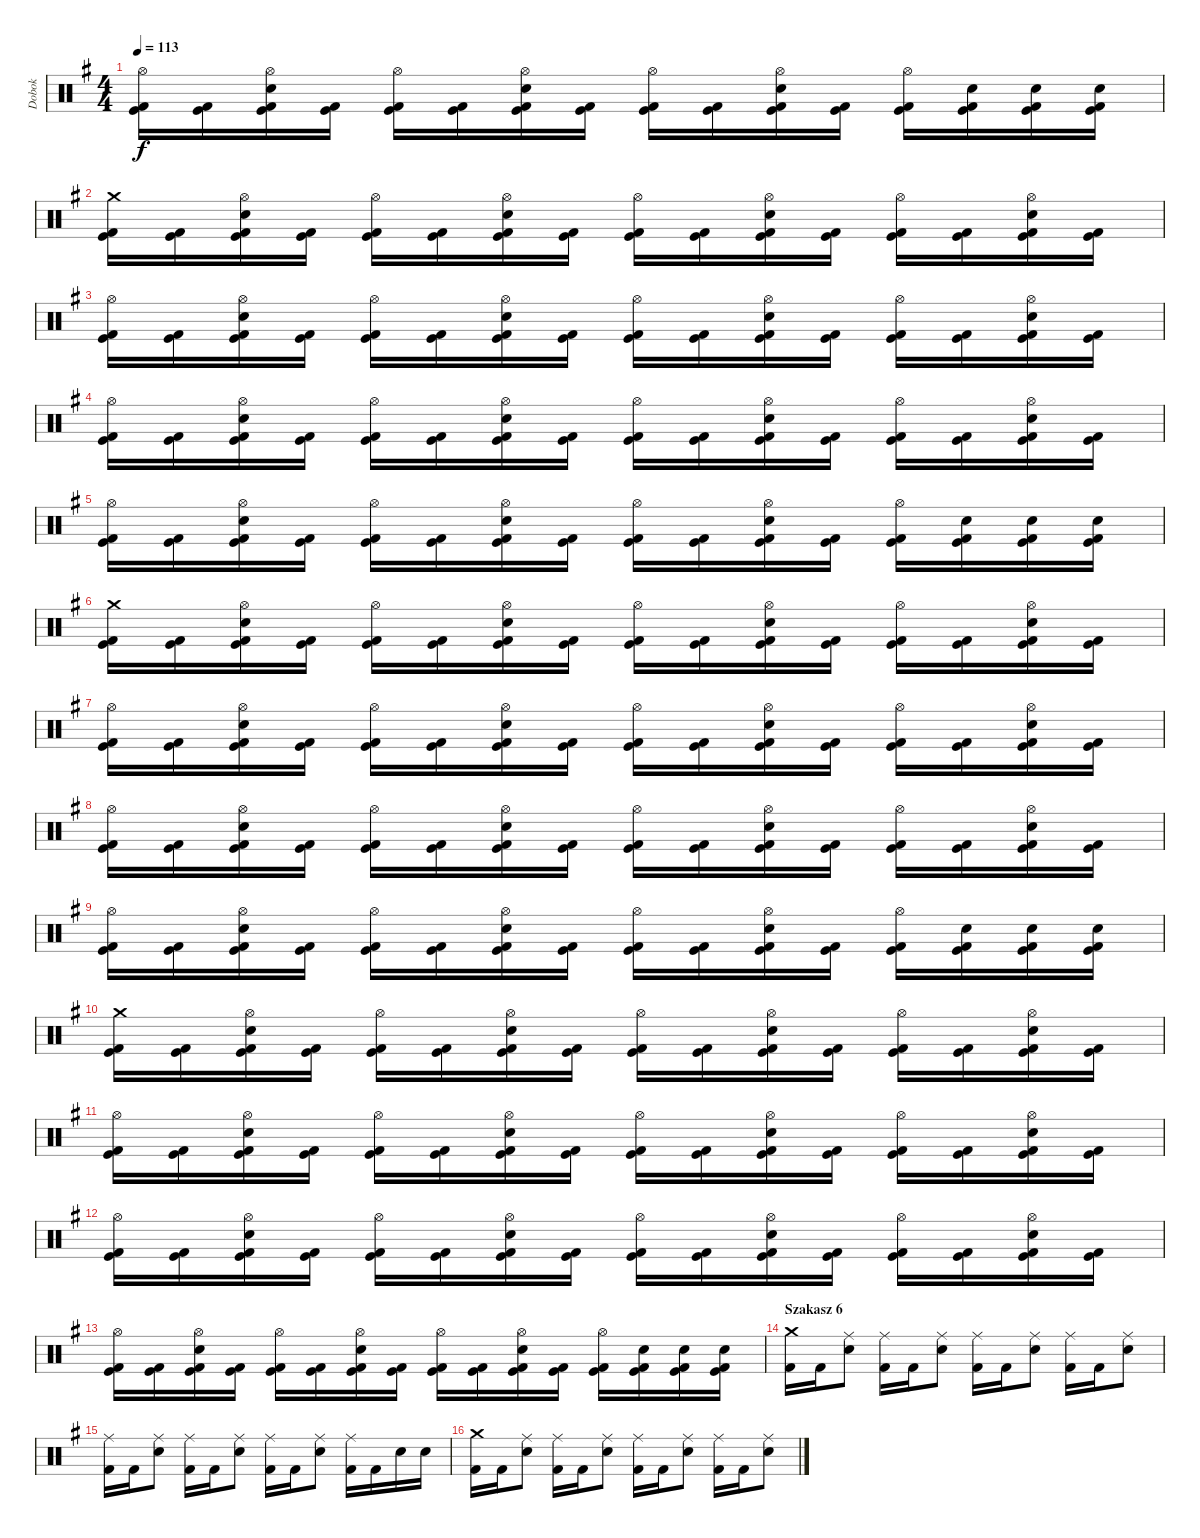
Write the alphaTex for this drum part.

\track ("Dobok" "Dobok") {instrument percussion}
\staff {score}
\articulation defaults
\ts (4 4)
\tempo 113
\clef neutral
\ks g
("Hi-Hat (open)" "Kick (hit) 2" "Kick (hit)").16{dy f} ("Kick (hit) 2" "Kick (hit)").16 ("Hi-Hat (open)" "Snare (hit) 2" "Kick (hit) 2" "Kick (hit)").16 ("Kick (hit) 2" "Kick (hit)").16 ("Hi-Hat (open)" "Kick (hit) 2" "Kick (hit)").16 ("Kick (hit) 2" "Kick (hit)").16 ("Hi-Hat (open)" "Snare (hit) 2" "Kick (hit) 2" "Kick (hit)").16 ("Kick (hit) 2" "Kick (hit)").16 ("Hi-Hat (open)" "Kick (hit) 2" "Kick (hit)").16 ("Kick (hit) 2" "Kick (hit)").16 ("Hi-Hat (open)" "Snare (hit) 2" "Kick (hit) 2" "Kick (hit)").16 ("Kick (hit) 2" "Kick (hit)").16 ("Hi-Hat (open)" "Kick (hit) 2" "Kick (hit)").16 ("Snare (hit) 2" "Kick (hit) 2" "Kick (hit)").16 ("Snare (hit) 2" "Kick (hit) 2" "Kick (hit)").16 ("Snare (hit) 2" "Kick (hit) 2" "Kick (hit)").16 |
("Crash medium (hit)" "Kick (hit) 2" "Kick (hit)").16 ("Kick (hit) 2" "Kick (hit)").16 ("Hi-Hat (open)" "Snare (hit) 2" "Kick (hit) 2" "Kick (hit)").16 ("Kick (hit) 2" "Kick (hit)").16 ("Hi-Hat (open)" "Kick (hit) 2" "Kick (hit)").16 ("Kick (hit) 2" "Kick (hit)").16 ("Hi-Hat (open)" "Snare (hit) 2" "Kick (hit) 2" "Kick (hit)").16 ("Kick (hit) 2" "Kick (hit)").16 ("Hi-Hat (open)" "Kick (hit) 2" "Kick (hit)").16 ("Kick (hit) 2" "Kick (hit)").16 ("Hi-Hat (open)" "Snare (hit) 2" "Kick (hit) 2" "Kick (hit)").16 ("Kick (hit) 2" "Kick (hit)").16 ("Hi-Hat (open)" "Kick (hit) 2" "Kick (hit)").16 ("Kick (hit) 2" "Kick (hit)").16 ("Hi-Hat (open)" "Snare (hit) 2" "Kick (hit) 2" "Kick (hit)").16 ("Kick (hit) 2" "Kick (hit)").16 |
("Hi-Hat (open)" "Kick (hit) 2" "Kick (hit)").16 ("Kick (hit) 2" "Kick (hit)").16 ("Hi-Hat (open)" "Snare (hit) 2" "Kick (hit) 2" "Kick (hit)").16 ("Kick (hit) 2" "Kick (hit)").16 ("Hi-Hat (open)" "Kick (hit) 2" "Kick (hit)").16 ("Kick (hit) 2" "Kick (hit)").16 ("Hi-Hat (open)" "Snare (hit) 2" "Kick (hit) 2" "Kick (hit)").16 ("Kick (hit) 2" "Kick (hit)").16 ("Hi-Hat (open)" "Kick (hit) 2" "Kick (hit)").16 ("Kick (hit) 2" "Kick (hit)").16 ("Hi-Hat (open)" "Snare (hit) 2" "Kick (hit) 2" "Kick (hit)").16 ("Kick (hit) 2" "Kick (hit)").16 ("Hi-Hat (open)" "Kick (hit) 2" "Kick (hit)").16 ("Kick (hit) 2" "Kick (hit)").16 ("Hi-Hat (open)" "Snare (hit) 2" "Kick (hit) 2" "Kick (hit)").16 ("Kick (hit) 2" "Kick (hit)").16 |
("Hi-Hat (open)" "Kick (hit) 2" "Kick (hit)").16 ("Kick (hit) 2" "Kick (hit)").16 ("Hi-Hat (open)" "Snare (hit) 2" "Kick (hit) 2" "Kick (hit)").16 ("Kick (hit) 2" "Kick (hit)").16 ("Hi-Hat (open)" "Kick (hit) 2" "Kick (hit)").16 ("Kick (hit) 2" "Kick (hit)").16 ("Hi-Hat (open)" "Snare (hit) 2" "Kick (hit) 2" "Kick (hit)").16 ("Kick (hit) 2" "Kick (hit)").16 ("Hi-Hat (open)" "Kick (hit) 2" "Kick (hit)").16 ("Kick (hit) 2" "Kick (hit)").16 ("Hi-Hat (open)" "Snare (hit) 2" "Kick (hit) 2" "Kick (hit)").16 ("Kick (hit) 2" "Kick (hit)").16 ("Hi-Hat (open)" "Kick (hit) 2" "Kick (hit)").16 ("Kick (hit) 2" "Kick (hit)").16 ("Hi-Hat (open)" "Snare (hit) 2" "Kick (hit) 2" "Kick (hit)").16 ("Kick (hit) 2" "Kick (hit)").16 |
("Hi-Hat (open)" "Kick (hit) 2" "Kick (hit)").16 ("Kick (hit) 2" "Kick (hit)").16 ("Hi-Hat (open)" "Snare (hit) 2" "Kick (hit) 2" "Kick (hit)").16 ("Kick (hit) 2" "Kick (hit)").16 ("Hi-Hat (open)" "Kick (hit) 2" "Kick (hit)").16 ("Kick (hit) 2" "Kick (hit)").16 ("Hi-Hat (open)" "Snare (hit) 2" "Kick (hit) 2" "Kick (hit)").16 ("Kick (hit) 2" "Kick (hit)").16 ("Hi-Hat (open)" "Kick (hit) 2" "Kick (hit)").16 ("Kick (hit) 2" "Kick (hit)").16 ("Hi-Hat (open)" "Snare (hit) 2" "Kick (hit) 2" "Kick (hit)").16 ("Kick (hit) 2" "Kick (hit)").16 ("Hi-Hat (open)" "Kick (hit) 2" "Kick (hit)").16 ("Snare (hit) 2" "Kick (hit) 2" "Kick (hit)").16 ("Snare (hit) 2" "Kick (hit) 2" "Kick (hit)").16 ("Snare (hit) 2" "Kick (hit) 2" "Kick (hit)").16 |
("Crash medium (hit)" "Kick (hit) 2" "Kick (hit)").16 ("Kick (hit) 2" "Kick (hit)").16 ("Hi-Hat (open)" "Snare (hit) 2" "Kick (hit) 2" "Kick (hit)").16 ("Kick (hit) 2" "Kick (hit)").16 ("Hi-Hat (open)" "Kick (hit) 2" "Kick (hit)").16 ("Kick (hit) 2" "Kick (hit)").16 ("Hi-Hat (open)" "Snare (hit) 2" "Kick (hit) 2" "Kick (hit)").16 ("Kick (hit) 2" "Kick (hit)").16 ("Hi-Hat (open)" "Kick (hit) 2" "Kick (hit)").16 ("Kick (hit) 2" "Kick (hit)").16 ("Hi-Hat (open)" "Snare (hit) 2" "Kick (hit) 2" "Kick (hit)").16 ("Kick (hit) 2" "Kick (hit)").16 ("Hi-Hat (open)" "Kick (hit) 2" "Kick (hit)").16 ("Kick (hit) 2" "Kick (hit)").16 ("Hi-Hat (open)" "Snare (hit) 2" "Kick (hit) 2" "Kick (hit)").16 ("Kick (hit) 2" "Kick (hit)").16 |
("Hi-Hat (open)" "Kick (hit) 2" "Kick (hit)").16 ("Kick (hit) 2" "Kick (hit)").16 ("Hi-Hat (open)" "Snare (hit) 2" "Kick (hit) 2" "Kick (hit)").16 ("Kick (hit) 2" "Kick (hit)").16 ("Hi-Hat (open)" "Kick (hit) 2" "Kick (hit)").16 ("Kick (hit) 2" "Kick (hit)").16 ("Hi-Hat (open)" "Snare (hit) 2" "Kick (hit) 2" "Kick (hit)").16 ("Kick (hit) 2" "Kick (hit)").16 ("Hi-Hat (open)" "Kick (hit) 2" "Kick (hit)").16 ("Kick (hit) 2" "Kick (hit)").16 ("Hi-Hat (open)" "Snare (hit) 2" "Kick (hit) 2" "Kick (hit)").16 ("Kick (hit) 2" "Kick (hit)").16 ("Hi-Hat (open)" "Kick (hit) 2" "Kick (hit)").16 ("Kick (hit) 2" "Kick (hit)").16 ("Hi-Hat (open)" "Snare (hit) 2" "Kick (hit) 2" "Kick (hit)").16 ("Kick (hit) 2" "Kick (hit)").16 |
("Hi-Hat (open)" "Kick (hit) 2" "Kick (hit)").16 ("Kick (hit) 2" "Kick (hit)").16 ("Hi-Hat (open)" "Snare (hit) 2" "Kick (hit) 2" "Kick (hit)").16 ("Kick (hit) 2" "Kick (hit)").16 ("Hi-Hat (open)" "Kick (hit) 2" "Kick (hit)").16 ("Kick (hit) 2" "Kick (hit)").16 ("Hi-Hat (open)" "Snare (hit) 2" "Kick (hit) 2" "Kick (hit)").16 ("Kick (hit) 2" "Kick (hit)").16 ("Hi-Hat (open)" "Kick (hit) 2" "Kick (hit)").16 ("Kick (hit) 2" "Kick (hit)").16 ("Hi-Hat (open)" "Snare (hit) 2" "Kick (hit) 2" "Kick (hit)").16 ("Kick (hit) 2" "Kick (hit)").16 ("Hi-Hat (open)" "Kick (hit) 2" "Kick (hit)").16 ("Kick (hit) 2" "Kick (hit)").16 ("Hi-Hat (open)" "Snare (hit) 2" "Kick (hit) 2" "Kick (hit)").16 ("Kick (hit) 2" "Kick (hit)").16 |
("Hi-Hat (open)" "Kick (hit) 2" "Kick (hit)").16 ("Kick (hit) 2" "Kick (hit)").16 ("Hi-Hat (open)" "Snare (hit) 2" "Kick (hit) 2" "Kick (hit)").16 ("Kick (hit) 2" "Kick (hit)").16 ("Hi-Hat (open)" "Kick (hit) 2" "Kick (hit)").16 ("Kick (hit) 2" "Kick (hit)").16 ("Hi-Hat (open)" "Snare (hit) 2" "Kick (hit) 2" "Kick (hit)").16 ("Kick (hit) 2" "Kick (hit)").16 ("Hi-Hat (open)" "Kick (hit) 2" "Kick (hit)").16 ("Kick (hit) 2" "Kick (hit)").16 ("Hi-Hat (open)" "Snare (hit) 2" "Kick (hit) 2" "Kick (hit)").16 ("Kick (hit) 2" "Kick (hit)").16 ("Hi-Hat (open)" "Kick (hit) 2" "Kick (hit)").16 ("Snare (hit) 2" "Kick (hit) 2" "Kick (hit)").16 ("Snare (hit) 2" "Kick (hit) 2" "Kick (hit)").16 ("Snare (hit) 2" "Kick (hit) 2" "Kick (hit)").16 |
("Crash medium (hit)" "Kick (hit) 2" "Kick (hit)").16 ("Kick (hit) 2" "Kick (hit)").16 ("Hi-Hat (open)" "Snare (hit) 2" "Kick (hit) 2" "Kick (hit)").16 ("Kick (hit) 2" "Kick (hit)").16 ("Hi-Hat (open)" "Kick (hit) 2" "Kick (hit)").16 ("Kick (hit) 2" "Kick (hit)").16 ("Hi-Hat (open)" "Snare (hit) 2" "Kick (hit) 2" "Kick (hit)").16 ("Kick (hit) 2" "Kick (hit)").16 ("Hi-Hat (open)" "Kick (hit) 2" "Kick (hit)").16 ("Kick (hit) 2" "Kick (hit)").16 ("Hi-Hat (open)" "Snare (hit) 2" "Kick (hit) 2" "Kick (hit)").16 ("Kick (hit) 2" "Kick (hit)").16 ("Hi-Hat (open)" "Kick (hit) 2" "Kick (hit)").16 ("Kick (hit) 2" "Kick (hit)").16 ("Hi-Hat (open)" "Snare (hit) 2" "Kick (hit) 2" "Kick (hit)").16 ("Kick (hit) 2" "Kick (hit)").16 |
("Hi-Hat (open)" "Kick (hit) 2" "Kick (hit)").16 ("Kick (hit) 2" "Kick (hit)").16 ("Hi-Hat (open)" "Snare (hit) 2" "Kick (hit) 2" "Kick (hit)").16 ("Kick (hit) 2" "Kick (hit)").16 ("Hi-Hat (open)" "Kick (hit) 2" "Kick (hit)").16 ("Kick (hit) 2" "Kick (hit)").16 ("Hi-Hat (open)" "Snare (hit) 2" "Kick (hit) 2" "Kick (hit)").16 ("Kick (hit) 2" "Kick (hit)").16 ("Hi-Hat (open)" "Kick (hit) 2" "Kick (hit)").16 ("Kick (hit) 2" "Kick (hit)").16 ("Hi-Hat (open)" "Snare (hit) 2" "Kick (hit) 2" "Kick (hit)").16 ("Kick (hit) 2" "Kick (hit)").16 ("Hi-Hat (open)" "Kick (hit) 2" "Kick (hit)").16 ("Kick (hit) 2" "Kick (hit)").16 ("Hi-Hat (open)" "Snare (hit) 2" "Kick (hit) 2" "Kick (hit)").16 ("Kick (hit) 2" "Kick (hit)").16 |
("Hi-Hat (open)" "Kick (hit) 2" "Kick (hit)").16 ("Kick (hit) 2" "Kick (hit)").16 ("Hi-Hat (open)" "Snare (hit) 2" "Kick (hit) 2" "Kick (hit)").16 ("Kick (hit) 2" "Kick (hit)").16 ("Hi-Hat (open)" "Kick (hit) 2" "Kick (hit)").16 ("Kick (hit) 2" "Kick (hit)").16 ("Hi-Hat (open)" "Snare (hit) 2" "Kick (hit) 2" "Kick (hit)").16 ("Kick (hit) 2" "Kick (hit)").16 ("Hi-Hat (open)" "Kick (hit) 2" "Kick (hit)").16 ("Kick (hit) 2" "Kick (hit)").16 ("Hi-Hat (open)" "Snare (hit) 2" "Kick (hit) 2" "Kick (hit)").16 ("Kick (hit) 2" "Kick (hit)").16 ("Hi-Hat (open)" "Kick (hit) 2" "Kick (hit)").16 ("Kick (hit) 2" "Kick (hit)").16 ("Hi-Hat (open)" "Snare (hit) 2" "Kick (hit) 2" "Kick (hit)").16 ("Kick (hit) 2" "Kick (hit)").16 |
("Hi-Hat (open)" "Kick (hit) 2" "Kick (hit)").16 ("Kick (hit) 2" "Kick (hit)").16 ("Hi-Hat (open)" "Snare (hit) 2" "Kick (hit) 2" "Kick (hit)").16 ("Kick (hit) 2" "Kick (hit)").16 ("Hi-Hat (open)" "Kick (hit) 2" "Kick (hit)").16 ("Kick (hit) 2" "Kick (hit)").16 ("Hi-Hat (open)" "Snare (hit) 2" "Kick (hit) 2" "Kick (hit)").16 ("Kick (hit) 2" "Kick (hit)").16 ("Hi-Hat (open)" "Kick (hit) 2" "Kick (hit)").16 ("Kick (hit) 2" "Kick (hit)").16 ("Hi-Hat (open)" "Snare (hit) 2" "Kick (hit) 2" "Kick (hit)").16 ("Kick (hit) 2" "Kick (hit)").16 ("Hi-Hat (open)" "Kick (hit) 2" "Kick (hit)").16 ("Snare (hit) 2" "Kick (hit) 2" "Kick (hit)").16 ("Snare (hit) 2" "Kick (hit) 2" "Kick (hit)").16 ("Snare (hit) 2" "Kick (hit) 2" "Kick (hit)").16 |
\section ("" "Szakasz 6")
("Crash medium (hit)" "Kick (hit) 2").16 "Kick (hit) 2".16 ("Ride (middle)" "Snare (hit) 2").8 ("Ride (middle)" "Kick (hit) 2").16 "Kick (hit) 2".16 ("Ride (middle)" "Snare (hit) 2").8 ("Ride (middle)" "Kick (hit) 2").16 "Kick (hit) 2".16 ("Ride (middle)" "Snare (hit) 2").8 ("Ride (middle)" "Kick (hit) 2").16 "Kick (hit) 2".16 ("Ride (middle)" "Snare (hit) 2").8 |
("Ride (middle)" "Kick (hit) 2").16 "Kick (hit) 2".16 ("Ride (middle)" "Snare (hit) 2").8 ("Ride (middle)" "Kick (hit) 2").16 "Kick (hit) 2".16 ("Ride (middle)" "Snare (hit) 2").8 ("Ride (middle)" "Kick (hit) 2").16 "Kick (hit) 2".16 ("Ride (middle)" "Snare (hit) 2").8 ("Ride (middle)" "Kick (hit) 2").16 "Kick (hit) 2".16 "Snare (hit) 2".16 "Snare (hit) 2".16 |
("Crash medium (hit)" "Kick (hit) 2").16 "Kick (hit) 2".16 ("Ride (middle)" "Snare (hit) 2").8 ("Ride (middle)" "Kick (hit) 2").16 "Kick (hit) 2".16 ("Ride (middle)" "Snare (hit) 2").8 ("Ride (middle)" "Kick (hit) 2").16 "Kick (hit) 2".16 ("Ride (middle)" "Snare (hit) 2").8 ("Ride (middle)" "Kick (hit) 2").16 "Kick (hit) 2".16 ("Ride (middle)" "Snare (hit) 2").8
